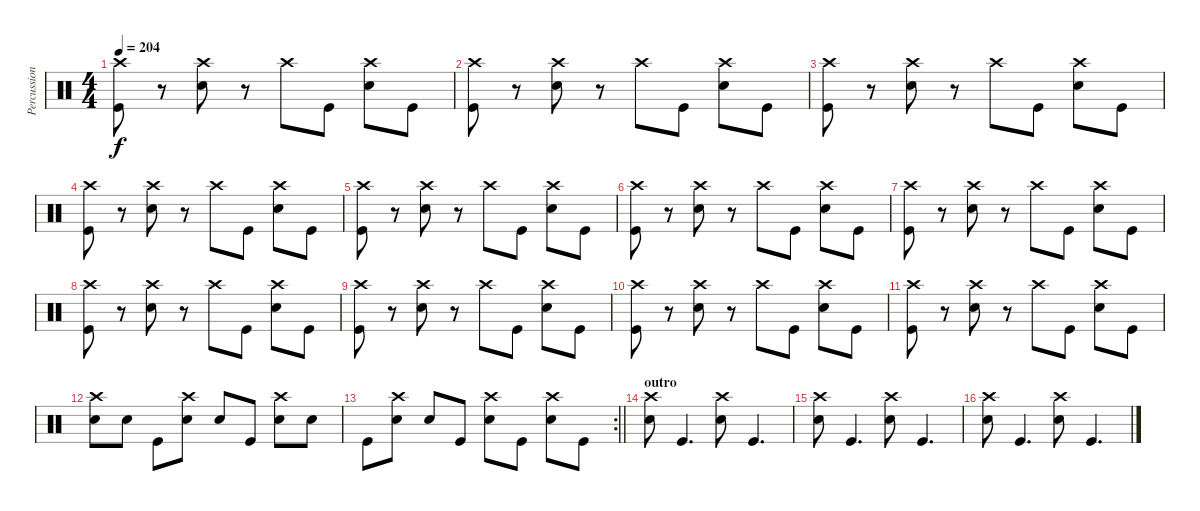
\track ("Percussion" "Percussion") {instrument percussion}
\staff {score}
\articulation defaults
\ts (4 4)
\tempo 204
\clef neutral
\ks c
("Crash high (hit)" "Kick (hit)").8{dy f} r.8 ("Crash high (hit)" "Snare (hit) 2").8 r.8 "Crash high (hit)".8 "Kick (hit)".8 ("Crash high (hit)" "Snare (hit) 2").8 "Kick (hit)".8 |
("Crash high (hit)" "Kick (hit)").8 r.8 ("Crash high (hit)" "Snare (hit) 2").8 r.8 "Crash high (hit)".8 "Kick (hit)".8 ("Crash high (hit)" "Snare (hit) 2").8 "Kick (hit)".8 |
("Crash high (hit)" "Kick (hit)").8 r.8 ("Crash high (hit)" "Snare (hit) 2").8 r.8 "Crash high (hit)".8 "Kick (hit)".8 ("Crash high (hit)" "Snare (hit) 2").8 "Kick (hit)".8 |
("Crash high (hit)" "Kick (hit)").8 r.8 ("Crash high (hit)" "Snare (hit) 2").8 r.8 "Crash high (hit)".8 "Kick (hit)".8 ("Crash high (hit)" "Snare (hit) 2").8 "Kick (hit)".8 |
("Crash high (hit)" "Kick (hit)").8 r.8 ("Crash high (hit)" "Snare (hit) 2").8 r.8 "Crash high (hit)".8 "Kick (hit)".8 ("Crash high (hit)" "Snare (hit) 2").8 "Kick (hit)".8 |
("Crash high (hit)" "Kick (hit)").8 r.8 ("Crash high (hit)" "Snare (hit) 2").8 r.8 "Crash high (hit)".8 "Kick (hit)".8 ("Crash high (hit)" "Snare (hit) 2").8 "Kick (hit)".8 |
("Crash high (hit)" "Kick (hit)").8 r.8 ("Crash high (hit)" "Snare (hit) 2").8 r.8 "Crash high (hit)".8 "Kick (hit)".8 ("Crash high (hit)" "Snare (hit) 2").8 "Kick (hit)".8 |
("Crash high (hit)" "Kick (hit)").8 r.8 ("Crash high (hit)" "Snare (hit) 2").8 r.8 "Crash high (hit)".8 "Kick (hit)".8 ("Crash high (hit)" "Snare (hit) 2").8 "Kick (hit)".8 |
("Crash high (hit)" "Kick (hit)").8 r.8 ("Crash high (hit)" "Snare (hit) 2").8 r.8 "Crash high (hit)".8 "Kick (hit)".8 ("Crash high (hit)" "Snare (hit) 2").8 "Kick (hit)".8 |
("Crash high (hit)" "Kick (hit)").8 r.8 ("Crash high (hit)" "Snare (hit) 2").8 r.8 "Crash high (hit)".8 "Kick (hit)".8 ("Crash high (hit)" "Snare (hit) 2").8 "Kick (hit)".8 |
("Crash high (hit)" "Kick (hit)").8 r.8 ("Crash high (hit)" "Snare (hit) 2").8 r.8 "Crash high (hit)".8 "Kick (hit)".8 ("Crash high (hit)" "Snare (hit) 2").8 "Kick (hit)".8 |
("Crash high (hit)" "Snare (hit) 2").8 "Snare (hit) 2".8 "Kick (hit)".8 ("Crash high (hit)" "Snare (hit) 2").8 "Snare (hit) 2".8 "Kick (hit)".8 ("Crash high (hit)" "Snare (hit) 2").8 "Snare (hit) 2".8 |
\rc 2
\barLineRight lightlight "Kick (hit)".8
("Crash high (hit)" "Snare (hit) 2").8 "Snare (hit) 2".8 "Kick (hit)".8 ("Crash high (hit)" "Snare (hit) 2").8 "Kick (hit)".8 ("Crash high (hit)" "Snare (hit) 2").8 "Kick (hit)".8 |
\section ("" "outro")
("Crash high (hit)" "Snare (hit) 2").8 "Kick (hit)".4{d} ("Crash high (hit)" "Snare (hit) 2").8 "Kick (hit)".4{d} |
("Crash high (hit)" "Snare (hit) 2").8 "Kick (hit)".4{d} ("Crash high (hit)" "Snare (hit) 2").8 "Kick (hit)".4{d} |
("Crash high (hit)" "Snare (hit) 2").8 "Kick (hit)".4{d} ("Crash high (hit)" "Snare (hit) 2").8 "Kick (hit)".4{d}
